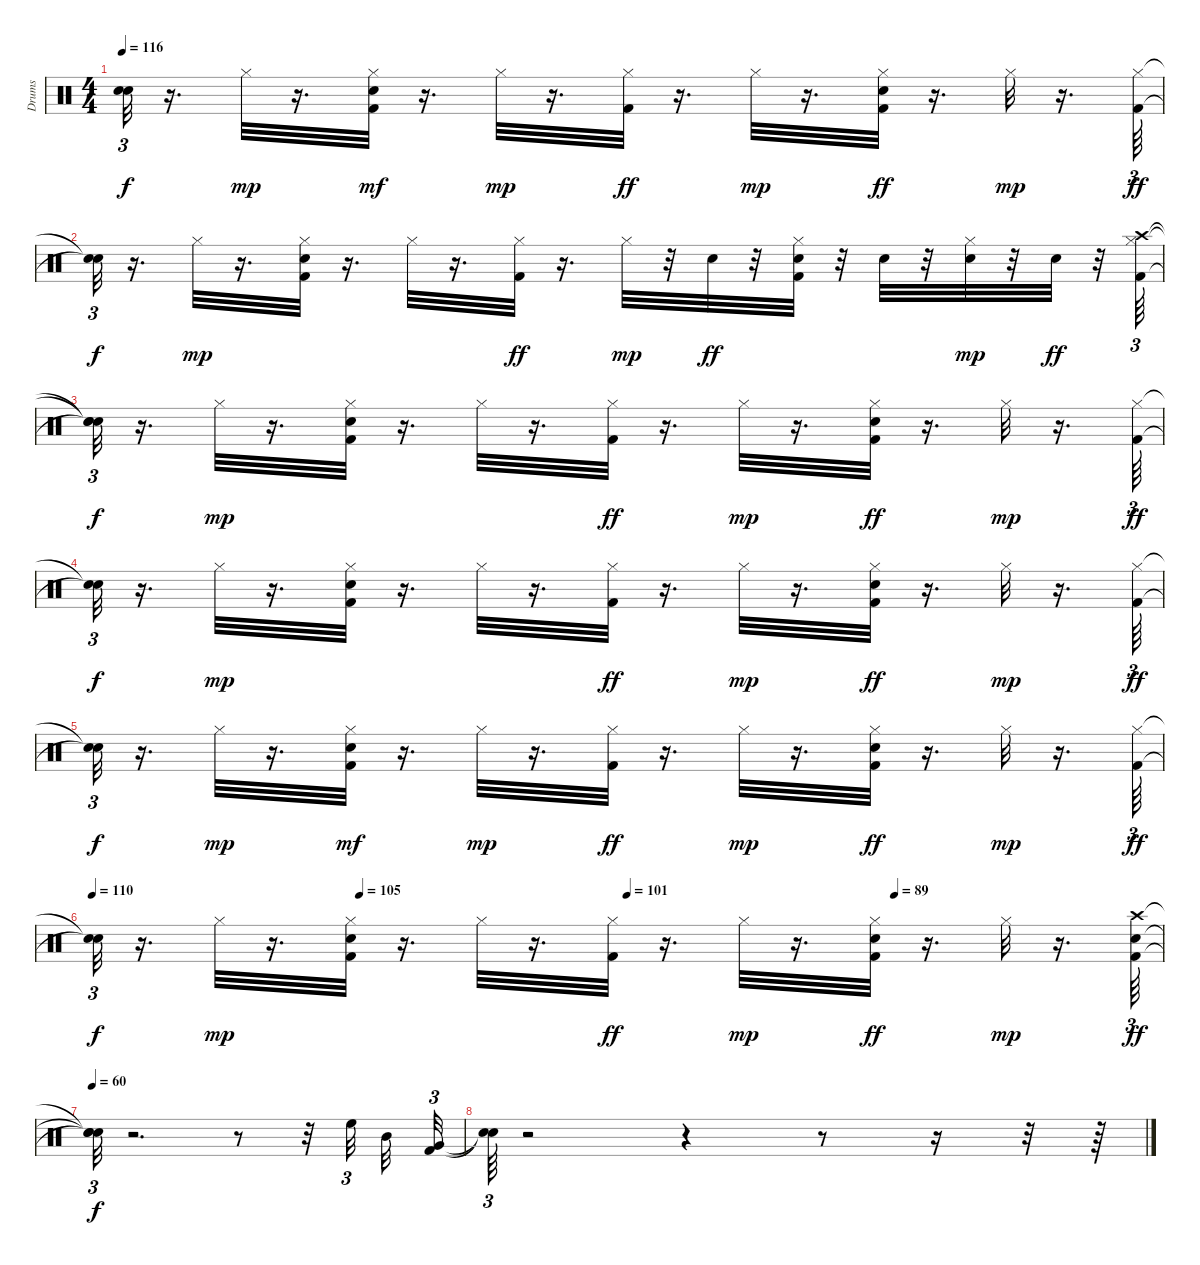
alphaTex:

\track ("Drums   " "Drums   ") {instrument percussion}
\staff {score}
\articulation defaults
\ts (4 4)
\tempo 116
\clef neutral
\ks c
("Snare (hit)"{t} "Snare (hit)"{t}).32{tu (3 2) dy f} r.16{d} "Hi-Hat (closed)".32{dy mp} r.16{d} ("Kick (hit) 2" "Snare (hit) 2" "Hi-Hat (closed)").32{dy mf} r.16{d} "Hi-Hat (closed)".32{dy mp} r.16{d} ("Hi-Hat (closed)" "Kick (hit) 2").32{dy ff} r.16{d} "Hi-Hat (closed)".32{dy mp} r.16{d} ("Kick (hit) 2" "Hi-Hat (closed)" "Snare (hit) 2").32{dy ff} r.16{d} "Hi-Hat (closed)".32{dy mp} r.16{d} ("Hi-Hat (closed)" "Kick (hit) 2").64{tu (3 2) dy ff} |
("Snare (hit)"{t} "Snare (hit)"{t}).32{tu (3 2) dy f} r.16{d} "Hi-Hat (closed)".32{dy mp} r.16{d} ("Kick (hit) 2" "Snare (hit) 2" "Hi-Hat (closed)").32 r.16{d} "Hi-Hat (closed)".32 r.16{d} ("Hi-Hat (closed)" "Kick (hit) 2").32{dy ff} r.16{d} "Hi-Hat (closed)".32{dy mp} r.32 "Snare (hit) 2".32{dy ff} r.32 ("Kick (hit) 2" "Hi-Hat (closed)" "Snare (hit) 2").32 r.32 "Snare (hit) 2".32 r.32 ("Snare (hit) 2" "Hi-Hat (closed)").32{dy mp} r.32 "Snare (hit) 2".32{dy ff} r.32 ("Crash high (hit)" "Hi-Hat (closed)" "Kick (hit) 2").64{tu (3 2)} |
("Snare (hit)"{t} "Snare (hit)"{t} "Snare (hit)"{t}).32{tu (3 2) dy f} r.16{d} "Hi-Hat (closed)".32{dy mp} r.16{d} ("Kick (hit) 2" "Snare (hit) 2" "Hi-Hat (closed)").32 r.16{d} "Hi-Hat (closed)".32 r.16{d} ("Hi-Hat (closed)" "Kick (hit) 2").32{dy ff} r.16{d} "Hi-Hat (closed)".32{dy mp} r.16{d} ("Kick (hit) 2" "Hi-Hat (closed)" "Snare (hit) 2").32{dy ff} r.16{d} "Hi-Hat (closed)".32{dy mp} r.16{d} ("Hi-Hat (closed)" "Kick (hit) 2").64{tu (3 2) dy ff} |
("Snare (hit)"{t} "Snare (hit)"{t}).32{tu (3 2) dy f} r.16{d} "Hi-Hat (closed)".32{dy mp} r.16{d} ("Kick (hit) 2" "Snare (hit) 2" "Hi-Hat (closed)").32 r.16{d} "Hi-Hat (closed)".32 r.16{d} ("Hi-Hat (closed)" "Kick (hit) 2").32{dy ff} r.16{d} "Hi-Hat (closed)".32{dy mp} r.16{d} ("Kick (hit) 2" "Hi-Hat (closed)" "Snare (hit) 2").32{dy ff} r.16{d} "Hi-Hat (closed)".32{dy mp} r.16{d} ("Hi-Hat (closed)" "Kick (hit) 2").64{tu (3 2) dy ff} |
("Snare (hit)"{t} "Snare (hit)"{t}).32{tu (3 2) dy f} r.16{d} "Hi-Hat (closed)".32{dy mp} r.16{d} ("Kick (hit) 2" "Snare (hit) 2" "Hi-Hat (closed)").32{dy mf} r.16{d} "Hi-Hat (closed)".32{dy mp} r.16{d} ("Hi-Hat (closed)" "Kick (hit) 2").32{dy ff} r.16{d} "Hi-Hat (closed)".32{dy mp} r.16{d} ("Kick (hit) 2" "Hi-Hat (closed)" "Snare (hit) 2").32{dy ff} r.16{d} "Hi-Hat (closed)".32{dy mp} r.16{d} ("Hi-Hat (closed)" "Kick (hit) 2").64{tu (3 2) dy ff} |
\tempo 110
\tempo (105 0.25)
\tempo (101 0.5)
\tempo (89 0.75)
("Snare (hit)"{t} "Snare (hit)"{t}).32{tu (3 2) dy f} r.16{d} "Hi-Hat (closed)".32{dy mp} r.16{d} ("Kick (hit) 2" "Snare (hit) 2" "Hi-Hat (closed)").32 r.16{d} "Hi-Hat (closed)".32 r.16{d} ("Hi-Hat (closed)" "Kick (hit) 2").32{dy ff} r.16{d} "Hi-Hat (closed)".32{dy mp} r.16{d} ("Kick (hit) 2" "Hi-Hat (closed)" "Snare (hit) 2").32{dy ff} r.16{d} "Hi-Hat (closed)".32{dy mp} r.16{d} ("Crash high (hit)" "Snare (hit) 2" "Kick (hit) 2").64{tu (3 2) dy ff} |
\tempo 60
("Snare (hit)"{t} "Snare (hit)"{t} "Snare (hit)"{t}).32{tu (3 2) dy f} r.2{d} r.8 r.32 "High Floor Tom (hit)".32{tu (3 2)} "Mid Tom (hit)".32 ("Very Low Tom (hit)" "Kick (hit) 2").32{tu (3 2)} |
("Snare (hit)"{t} "Snare (hit)"{t}).64{tu (3 2)} r.2 r.4 r.8 r.16 r.32 r.64
